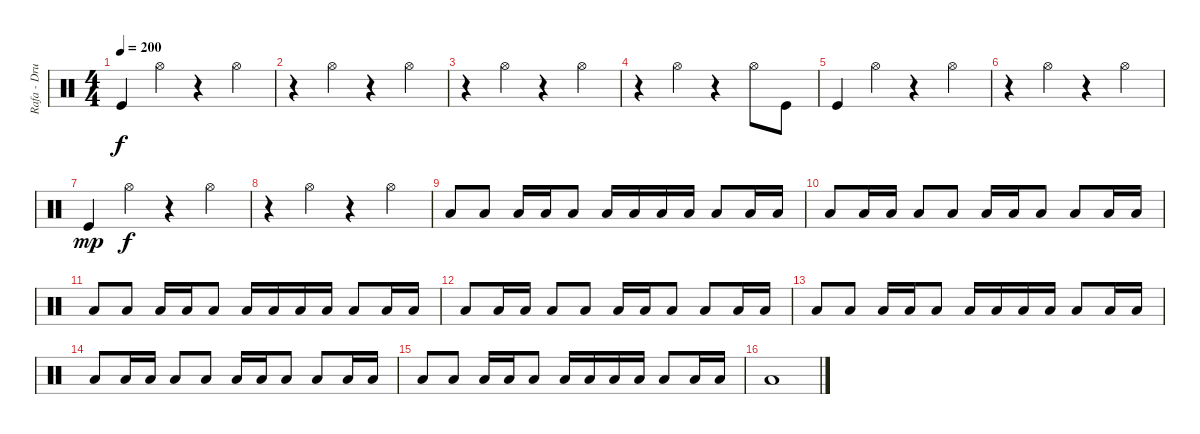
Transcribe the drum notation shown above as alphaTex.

\track ("Rafa - Drums" "Rafa - Dru") {instrument percussion}
\staff {score}
\articulation defaults
\ts (4 4)
\tempo 200
\clef neutral
\ks c "Kick (hit)".4{dy f} "Hi-Hat (open)".4
r.4 "Hi-Hat (open)".4 |
r.4 "Hi-Hat (open)".4 r.4 "Hi-Hat (open)".4 |
r.4 "Hi-Hat (open)".4 r.4 "Hi-Hat (open)".4 |
r.4 "Hi-Hat (open)".4 r.4 "Hi-Hat (open)".8 "Kick (hit)".8 |
"Kick (hit)".4 "Hi-Hat (open)".4 r.4 "Hi-Hat (open)".4 |
r.4 "Hi-Hat (open)".4 r.4 "Hi-Hat (open)".4 |
"Kick (hit)".4{dy mp} "Hi-Hat (open)".4{dy f} r.4 "Hi-Hat (open)".4 |
r.4 "Hi-Hat (open)".4 r.4 "Hi-Hat (open)".4 |
"Low Floor Tom (hit)".8{volume 9} "Low Floor Tom (hit)".8 "Low Floor Tom (hit)".16 "Low Floor Tom (hit)".16 "Low Floor Tom (hit)".8 "Low Floor Tom (hit)".16 "Low Floor Tom (hit)".16 "Low Floor Tom (hit)".16 "Low Floor Tom (hit)".16 "Low Floor Tom (hit)".8 "Low Floor Tom (hit)".16 "Low Floor Tom (hit)".16 |
"Low Floor Tom (hit)".8 "Low Floor Tom (hit)".16 "Low Floor Tom (hit)".16 "Low Floor Tom (hit)".8 "Low Floor Tom (hit)".8 "Low Floor Tom (hit)".16 "Low Floor Tom (hit)".16 "Low Floor Tom (hit)".8 "Low Floor Tom (hit)".8 "Low Floor Tom (hit)".16 "Low Floor Tom (hit)".16 |
"Low Floor Tom (hit)".8 "Low Floor Tom (hit)".8 "Low Floor Tom (hit)".16 "Low Floor Tom (hit)".16 "Low Floor Tom (hit)".8 "Low Floor Tom (hit)".16 "Low Floor Tom (hit)".16 "Low Floor Tom (hit)".16 "Low Floor Tom (hit)".16 "Low Floor Tom (hit)".8 "Low Floor Tom (hit)".16 "Low Floor Tom (hit)".16 |
"Low Floor Tom (hit)".8 "Low Floor Tom (hit)".16 "Low Floor Tom (hit)".16 "Low Floor Tom (hit)".8 "Low Floor Tom (hit)".8 "Low Floor Tom (hit)".16 "Low Floor Tom (hit)".16 "Low Floor Tom (hit)".8 "Low Floor Tom (hit)".8 "Low Floor Tom (hit)".16 "Low Floor Tom (hit)".16 |
"Low Floor Tom (hit)".8 "Low Floor Tom (hit)".8 "Low Floor Tom (hit)".16 "Low Floor Tom (hit)".16 "Low Floor Tom (hit)".8 "Low Floor Tom (hit)".16 "Low Floor Tom (hit)".16 "Low Floor Tom (hit)".16 "Low Floor Tom (hit)".16 "Low Floor Tom (hit)".8 "Low Floor Tom (hit)".16 "Low Floor Tom (hit)".16 |
"Low Floor Tom (hit)".8 "Low Floor Tom (hit)".16 "Low Floor Tom (hit)".16 "Low Floor Tom (hit)".8 "Low Floor Tom (hit)".8 "Low Floor Tom (hit)".16 "Low Floor Tom (hit)".16 "Low Floor Tom (hit)".8 "Low Floor Tom (hit)".8 "Low Floor Tom (hit)".16 "Low Floor Tom (hit)".16 |
"Low Floor Tom (hit)".8 "Low Floor Tom (hit)".8 "Low Floor Tom (hit)".16 "Low Floor Tom (hit)".16 "Low Floor Tom (hit)".8 "Low Floor Tom (hit)".16 "Low Floor Tom (hit)".16 "Low Floor Tom (hit)".16 "Low Floor Tom (hit)".16 "Low Floor Tom (hit)".8 "Low Floor Tom (hit)".16 "Low Floor Tom (hit)".16 |
"Low Floor Tom (hit)".1
